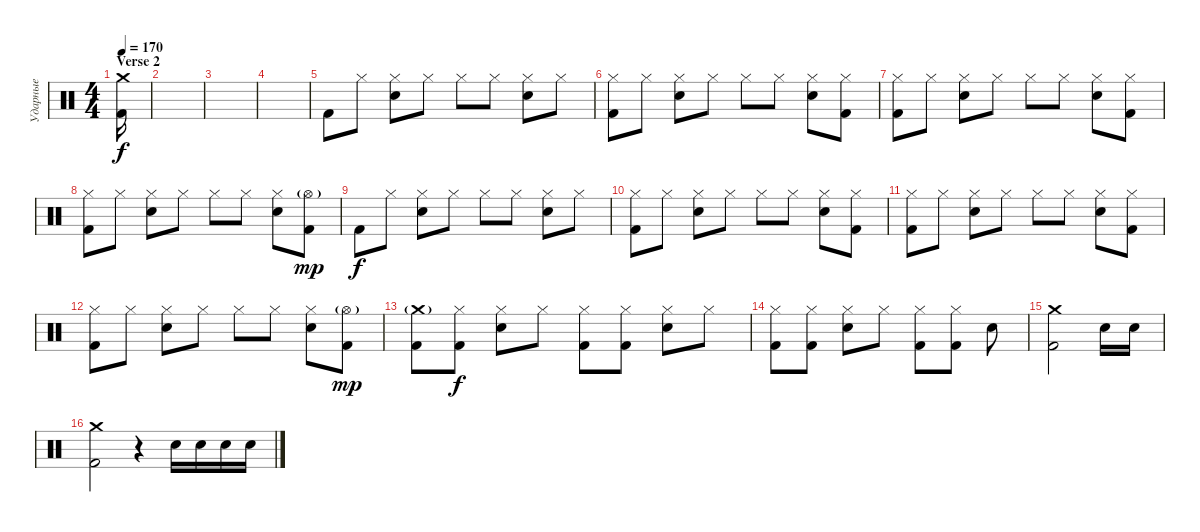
\track ("Ударные" "Ударные") {instrument percussion}
\staff {score}
\articulation defaults
\ts (4 4)
\section ("" "Verse 2")
\tempo 170
\clef neutral
\ks c
("Kick (hit) 2" "Crash medium (hit)").16{dy f} |
|
|
|
"Kick (hit) 2".8 "Hi-Hat (closed)".8 ("Hi-Hat (closed)" "Electric Snare (hit)").8 "Hi-Hat (closed)".8 "Hi-Hat (closed)".8 "Hi-Hat (closed)".8 ("Hi-Hat (closed)" "Electric Snare (hit)").8 "Hi-Hat (closed)".8 |
("Hi-Hat (closed)" "Kick (hit) 2").8 "Hi-Hat (closed)".8 ("Hi-Hat (closed)" "Electric Snare (hit)").8 "Hi-Hat (closed)".8 "Hi-Hat (closed)".8 "Hi-Hat (closed)".8 ("Hi-Hat (closed)" "Electric Snare (hit)").8 ("Hi-Hat (closed)" "Kick (hit) 2").8 |
("Hi-Hat (closed)" "Kick (hit) 2").8 "Hi-Hat (closed)".8 ("Hi-Hat (closed)" "Electric Snare (hit)").8 "Hi-Hat (closed)".8 "Hi-Hat (closed)".8 "Hi-Hat (closed)".8 ("Hi-Hat (closed)" "Electric Snare (hit)").8 ("Hi-Hat (closed)" "Kick (hit) 2").8 |
("Hi-Hat (closed)" "Kick (hit) 2").8 "Hi-Hat (closed)".8 ("Hi-Hat (closed)" "Electric Snare (hit)").8 "Hi-Hat (closed)".8 "Hi-Hat (closed)".8 "Hi-Hat (closed)".8 ("Hi-Hat (closed)" "Electric Snare (hit)").8 ("Hi-Hat (open)"{g} "Kick (hit) 2").8{dy mp} |
"Kick (hit) 2".8{dy f} "Hi-Hat (closed)".8 ("Hi-Hat (closed)" "Electric Snare (hit)").8 "Hi-Hat (closed)".8 "Hi-Hat (closed)".8 "Hi-Hat (closed)".8 ("Hi-Hat (closed)" "Electric Snare (hit)").8 "Hi-Hat (closed)".8 |
("Hi-Hat (closed)" "Kick (hit) 2").8 "Hi-Hat (closed)".8 ("Hi-Hat (closed)" "Electric Snare (hit)").8 "Hi-Hat (closed)".8 "Hi-Hat (closed)".8 "Hi-Hat (closed)".8 ("Hi-Hat (closed)" "Electric Snare (hit)").8 ("Hi-Hat (closed)" "Kick (hit) 2").8 |
("Hi-Hat (closed)" "Kick (hit) 2").8 "Hi-Hat (closed)".8 ("Hi-Hat (closed)" "Electric Snare (hit)").8 "Hi-Hat (closed)".8 "Hi-Hat (closed)".8 "Hi-Hat (closed)".8 ("Hi-Hat (closed)" "Electric Snare (hit)").8 ("Hi-Hat (closed)" "Kick (hit) 2").8 |
("Hi-Hat (closed)" "Kick (hit) 2").8 "Hi-Hat (closed)".8 ("Hi-Hat (closed)" "Electric Snare (hit)").8 "Hi-Hat (closed)".8 "Hi-Hat (closed)".8 "Hi-Hat (closed)".8 ("Hi-Hat (closed)" "Electric Snare (hit)").8 ("Hi-Hat (open)"{g} "Kick (hit) 2").8{dy mp} |
("Kick (hit) 2" "Crash medium (hit)"{g}).8 ("Hi-Hat (closed)" "Kick (hit) 2").8{dy f} ("Hi-Hat (closed)" "Electric Snare (hit)").8 "Hi-Hat (closed)".8 ("Hi-Hat (closed)" "Kick (hit) 2").8 ("Hi-Hat (closed)" "Kick (hit) 2").8 ("Hi-Hat (closed)" "Electric Snare (hit)").8 "Hi-Hat (closed)".8 |
("Hi-Hat (closed)" "Kick (hit) 2").8 ("Hi-Hat (closed)" "Kick (hit) 2").8 ("Hi-Hat (closed)" "Electric Snare (hit)").8 "Hi-Hat (closed)".8 ("Hi-Hat (closed)" "Kick (hit) 2").8 ("Hi-Hat (closed)" "Kick (hit) 2").8 "Electric Snare (hit)".8 |
("Kick (hit) 2" "Crash medium (hit)").2 "Electric Snare (hit)".16 "Electric Snare (hit)".16 |
("Kick (hit) 2" "Crash medium (hit)").2 r.4 "Electric Snare (hit)".16 "Electric Snare (hit)".16 "Electric Snare (hit)".16 "Electric Snare (hit)".16
